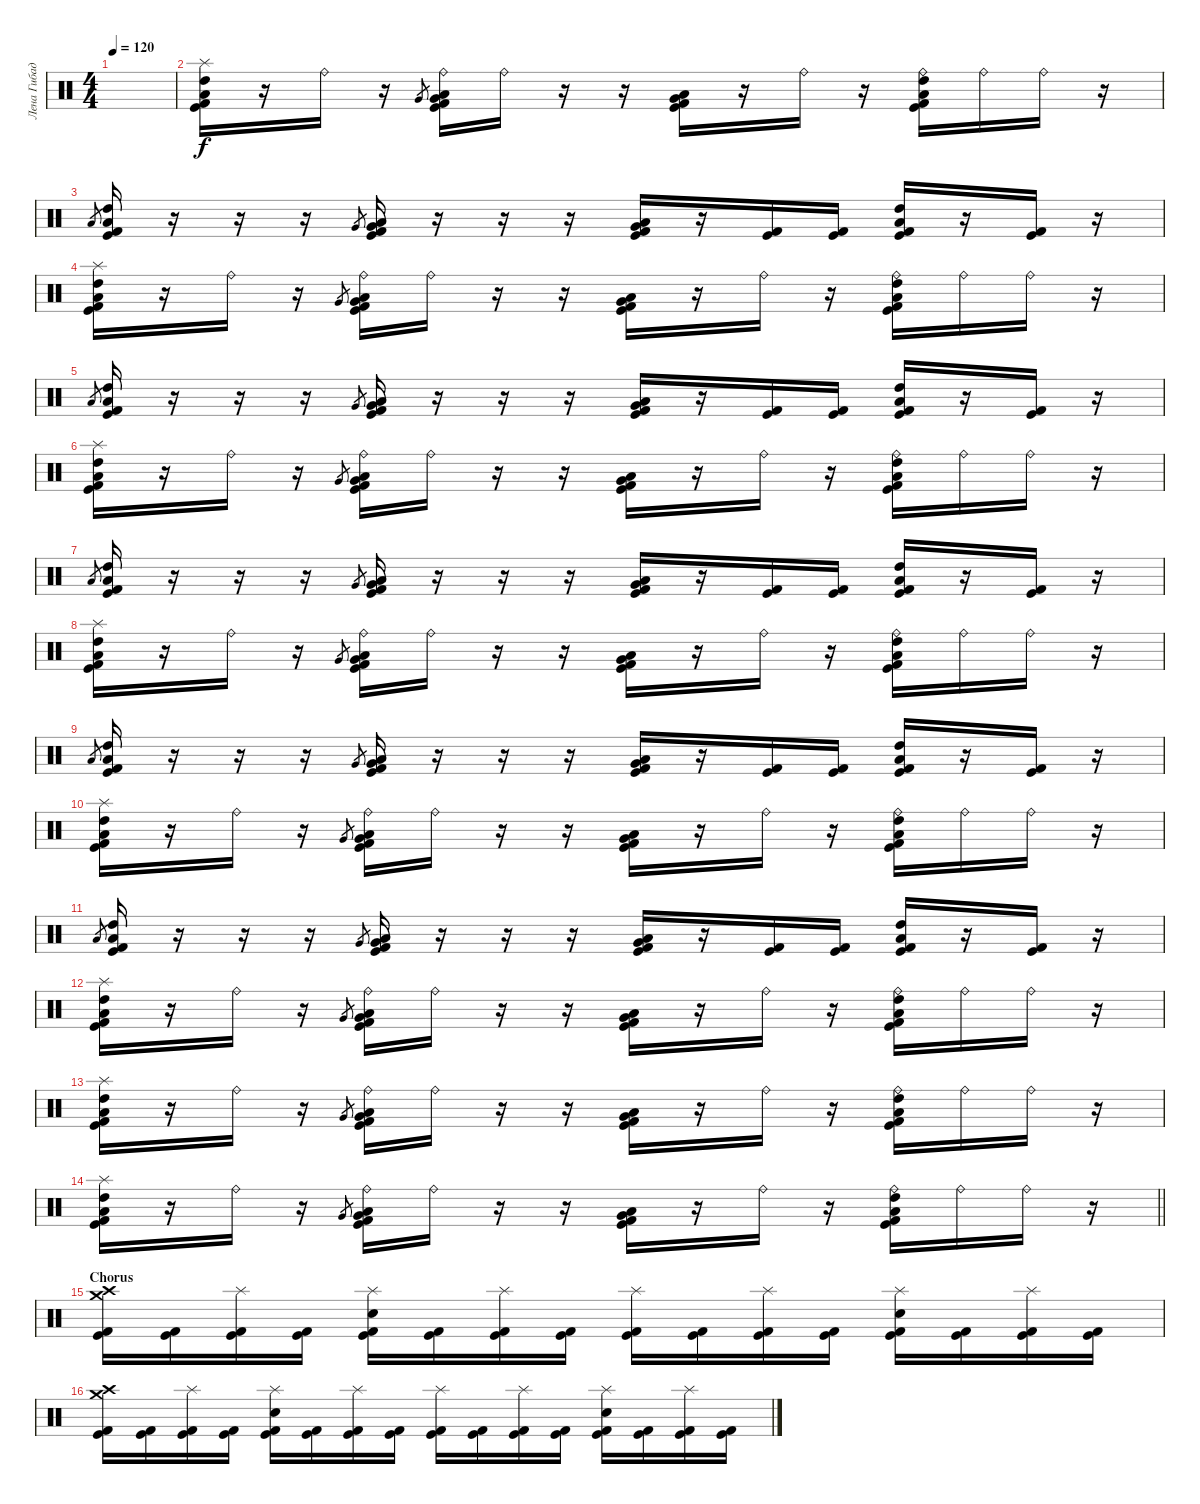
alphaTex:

\track ("Лена Гибадулина" "Лена Гибад") {instrument percussion}
\staff {score}
\articulation defaults
\ts (4 4)
\tempo 120
\clef neutral
\ks c
|
("Splash (hit)" "Kick (hit)" "Kick (hit) 2" "High Tom (hit)" "Low Tom (hit)").16 r.16 "Ride (bell)".16 r.16 "Very Low Tom (hit)".8{gr} ("Ride (bell)" "Kick (hit)" "Kick (hit) 2" "Very Low Tom (hit)" "Low Tom (hit)").16 "Ride (bell)".16 r.16 r.16 ("Kick (hit)" "Kick (hit) 2" "Low Floor Tom (hit)" "Very Low Tom (hit)").16 r.16 "Ride (bell)".16 r.16 ("Ride (bell)" "Kick (hit)" "Kick (hit) 2" "Low Tom (hit)" "High Tom (hit)").16 "Ride (bell)".16 "Ride (bell)".16 r.16 |
"Low Tom (hit)".8{gr} ("Kick (hit)" "Kick (hit) 2" "High Tom (hit)" "Low Tom (hit)").16 r.16 r.16 r.16 "Very Low Tom (hit)".8{gr} ("Kick (hit)" "Kick (hit) 2" "Very Low Tom (hit)" "Low Tom (hit)").16 r.16 r.16 r.16 ("Kick (hit)" "Kick (hit) 2" "Low Floor Tom (hit)" "Very Low Tom (hit)").16 r.16 ("Kick (hit)" "Kick (hit) 2").16 ("Kick (hit)" "Kick (hit) 2").16 ("Kick (hit)" "Kick (hit) 2" "Low Tom (hit)" "High Tom (hit)").16 r.16 ("Kick (hit)" "Kick (hit) 2").16 r.16 |
("Splash (hit)" "Kick (hit)" "Kick (hit) 2" "High Tom (hit)" "Low Tom (hit)").16 r.16 "Ride (bell)".16 r.16 "Very Low Tom (hit)".8{gr} ("Ride (bell)" "Kick (hit)" "Kick (hit) 2" "Very Low Tom (hit)" "Low Tom (hit)").16 "Ride (bell)".16 r.16 r.16 ("Kick (hit)" "Kick (hit) 2" "Low Floor Tom (hit)" "Very Low Tom (hit)").16 r.16 "Ride (bell)".16 r.16 ("Ride (bell)" "Kick (hit)" "Kick (hit) 2" "Low Tom (hit)" "High Tom (hit)").16 "Ride (bell)".16 "Ride (bell)".16 r.16 |
"Low Tom (hit)".8{gr} ("Kick (hit)" "Kick (hit) 2" "High Tom (hit)" "Low Tom (hit)").16 r.16 r.16 r.16 "Very Low Tom (hit)".8{gr} ("Kick (hit)" "Kick (hit) 2" "Very Low Tom (hit)" "Low Tom (hit)").16 r.16 r.16 r.16 ("Kick (hit)" "Kick (hit) 2" "Low Floor Tom (hit)" "Very Low Tom (hit)").16 r.16 ("Kick (hit)" "Kick (hit) 2").16 ("Kick (hit)" "Kick (hit) 2").16 ("Kick (hit)" "Kick (hit) 2" "Low Tom (hit)" "High Tom (hit)").16 r.16 ("Kick (hit)" "Kick (hit) 2").16 r.16 |
("Splash (hit)" "Kick (hit)" "Kick (hit) 2" "High Tom (hit)" "Low Tom (hit)").16 r.16 "Ride (bell)".16 r.16 "Very Low Tom (hit)".8{gr} ("Ride (bell)" "Kick (hit)" "Kick (hit) 2" "Very Low Tom (hit)" "Low Tom (hit)").16 "Ride (bell)".16 r.16 r.16 ("Kick (hit)" "Kick (hit) 2" "Low Floor Tom (hit)" "Very Low Tom (hit)").16 r.16 "Ride (bell)".16 r.16 ("Ride (bell)" "Kick (hit)" "Kick (hit) 2" "Low Tom (hit)" "High Tom (hit)").16 "Ride (bell)".16 "Ride (bell)".16 r.16 |
"Low Tom (hit)".8{gr} ("Kick (hit)" "Kick (hit) 2" "High Tom (hit)" "Low Tom (hit)").16 r.16 r.16 r.16 "Very Low Tom (hit)".8{gr} ("Kick (hit)" "Kick (hit) 2" "Very Low Tom (hit)" "Low Tom (hit)").16 r.16 r.16 r.16 ("Kick (hit)" "Kick (hit) 2" "Low Floor Tom (hit)" "Very Low Tom (hit)").16 r.16 ("Kick (hit)" "Kick (hit) 2").16 ("Kick (hit)" "Kick (hit) 2").16 ("Kick (hit)" "Kick (hit) 2" "Low Tom (hit)" "High Tom (hit)").16 r.16 ("Kick (hit)" "Kick (hit) 2").16 r.16 |
("Splash (hit)" "Kick (hit)" "Kick (hit) 2" "High Tom (hit)" "Low Tom (hit)").16 r.16 "Ride (bell)".16 r.16 "Very Low Tom (hit)".8{gr} ("Ride (bell)" "Kick (hit)" "Kick (hit) 2" "Very Low Tom (hit)" "Low Tom (hit)").16 "Ride (bell)".16 r.16 r.16 ("Kick (hit)" "Kick (hit) 2" "Low Floor Tom (hit)" "Very Low Tom (hit)").16 r.16 "Ride (bell)".16 r.16 ("Ride (bell)" "Kick (hit)" "Kick (hit) 2" "Low Tom (hit)" "High Tom (hit)").16 "Ride (bell)".16 "Ride (bell)".16 r.16 |
"Low Tom (hit)".8{gr} ("Kick (hit)" "Kick (hit) 2" "High Tom (hit)" "Low Tom (hit)").16 r.16 r.16 r.16 "Very Low Tom (hit)".8{gr} ("Kick (hit)" "Kick (hit) 2" "Very Low Tom (hit)" "Low Tom (hit)").16 r.16 r.16 r.16 ("Kick (hit)" "Kick (hit) 2" "Low Floor Tom (hit)" "Very Low Tom (hit)").16 r.16 ("Kick (hit)" "Kick (hit) 2").16 ("Kick (hit)" "Kick (hit) 2").16 ("Kick (hit)" "Kick (hit) 2" "Low Tom (hit)" "High Tom (hit)").16 r.16 ("Kick (hit)" "Kick (hit) 2").16 r.16 |
("Splash (hit)" "Kick (hit)" "Kick (hit) 2" "High Tom (hit)" "Low Tom (hit)").16 r.16 "Ride (bell)".16 r.16 "Very Low Tom (hit)".8{gr} ("Ride (bell)" "Kick (hit)" "Kick (hit) 2" "Very Low Tom (hit)" "Low Tom (hit)").16 "Ride (bell)".16 r.16 r.16 ("Kick (hit)" "Kick (hit) 2" "Low Floor Tom (hit)" "Very Low Tom (hit)").16 r.16 "Ride (bell)".16 r.16 ("Ride (bell)" "Kick (hit)" "Kick (hit) 2" "Low Tom (hit)" "High Tom (hit)").16 "Ride (bell)".16 "Ride (bell)".16 r.16 |
"Low Tom (hit)".8{gr} ("Kick (hit)" "Kick (hit) 2" "High Tom (hit)" "Low Tom (hit)").16 r.16 r.16 r.16 "Very Low Tom (hit)".8{gr} ("Kick (hit)" "Kick (hit) 2" "Very Low Tom (hit)" "Low Tom (hit)").16 r.16 r.16 r.16 ("Kick (hit)" "Kick (hit) 2" "Low Floor Tom (hit)" "Very Low Tom (hit)").16 r.16 ("Kick (hit)" "Kick (hit) 2").16 ("Kick (hit)" "Kick (hit) 2").16 ("Kick (hit)" "Kick (hit) 2" "Low Tom (hit)" "High Tom (hit)").16 r.16 ("Kick (hit)" "Kick (hit) 2").16 r.16 |
("Splash (hit)" "Kick (hit)" "Kick (hit) 2" "High Tom (hit)" "Low Tom (hit)").16 r.16 "Ride (bell)".16 r.16 "Very Low Tom (hit)".8{gr} ("Ride (bell)" "Kick (hit)" "Kick (hit) 2" "Very Low Tom (hit)" "Low Tom (hit)").16 "Ride (bell)".16 r.16 r.16 ("Kick (hit)" "Kick (hit) 2" "Low Floor Tom (hit)" "Very Low Tom (hit)").16 r.16 "Ride (bell)".16 r.16 ("Ride (bell)" "Kick (hit)" "Kick (hit) 2" "Low Tom (hit)" "High Tom (hit)").16 "Ride (bell)".16 "Ride (bell)".16 r.16 |
("Splash (hit)" "Kick (hit)" "Kick (hit) 2" "High Tom (hit)" "Low Tom (hit)").16 r.16 "Ride (bell)".16 r.16 "Very Low Tom (hit)".8{gr} ("Ride (bell)" "Kick (hit)" "Kick (hit) 2" "Very Low Tom (hit)" "Low Tom (hit)").16 "Ride (bell)".16 r.16 r.16 ("Kick (hit)" "Kick (hit) 2" "Low Floor Tom (hit)" "Very Low Tom (hit)").16 r.16 "Ride (bell)".16 r.16 ("Ride (bell)" "Kick (hit)" "Kick (hit) 2" "Low Tom (hit)" "High Tom (hit)").16 "Ride (bell)".16 "Ride (bell)".16 r.16 |
\barLineRight lightlight
("Splash (hit)" "Kick (hit)" "Kick (hit) 2" "High Tom (hit)" "Low Tom (hit)").16 r.16 "Ride (bell)".16 r.16 "Very Low Tom (hit)".8{gr} ("Ride (bell)" "Kick (hit)" "Kick (hit) 2" "Very Low Tom (hit)" "Low Tom (hit)").16 "Ride (bell)".16 r.16 r.16 ("Kick (hit)" "Kick (hit) 2" "Low Floor Tom (hit)" "Very Low Tom (hit)").16 r.16 "Ride (bell)".16 r.16 ("Ride (bell)" "Kick (hit)" "Kick (hit) 2" "Low Tom (hit)" "High Tom (hit)").16 "Ride (bell)".16 "Ride (bell)".16 r.16 |
\section ("" "Chorus")
("Crash high (hit)" "Crash medium (hit)" "Kick (hit)" "Kick (hit) 2").16 ("Kick (hit)" "Kick (hit) 2").16 ("Splash (hit)" "Kick (hit)" "Kick (hit) 2").16 ("Kick (hit)" "Kick (hit) 2").16 ("Electric Snare (hit)" "Splash (hit)" "Kick (hit)" "Kick (hit) 2").16 ("Kick (hit)" "Kick (hit) 2").16 ("Splash (hit)" "Kick (hit)" "Kick (hit) 2").16 ("Kick (hit)" "Kick (hit) 2").16 ("Splash (hit)" "Kick (hit)" "Kick (hit) 2").16 ("Kick (hit)" "Kick (hit) 2").16 ("Splash (hit)" "Kick (hit)" "Kick (hit) 2").16 ("Kick (hit)" "Kick (hit) 2").16 ("Electric Snare (hit)" "Splash (hit)" "Kick (hit)" "Kick (hit) 2").16 ("Kick (hit)" "Kick (hit) 2").16 ("Splash (hit)" "Kick (hit)" "Kick (hit) 2").16 ("Kick (hit)" "Kick (hit) 2").16 |
("Crash high (hit)" "Crash medium (hit)" "Kick (hit)" "Kick (hit) 2").16 ("Kick (hit)" "Kick (hit) 2").16 ("Splash (hit)" "Kick (hit)" "Kick (hit) 2").16 ("Kick (hit)" "Kick (hit) 2").16 ("Electric Snare (hit)" "Splash (hit)" "Kick (hit)" "Kick (hit) 2").16 ("Kick (hit)" "Kick (hit) 2").16 ("Splash (hit)" "Kick (hit)" "Kick (hit) 2").16 ("Kick (hit)" "Kick (hit) 2").16 ("Splash (hit)" "Kick (hit)" "Kick (hit) 2").16 ("Kick (hit)" "Kick (hit) 2").16 ("Splash (hit)" "Kick (hit)" "Kick (hit) 2").16 ("Kick (hit)" "Kick (hit) 2").16 ("Electric Snare (hit)" "Splash (hit)" "Kick (hit)" "Kick (hit) 2").16 ("Kick (hit)" "Kick (hit) 2").16 ("Splash (hit)" "Kick (hit)" "Kick (hit) 2").16 ("Kick (hit)" "Kick (hit) 2").16
